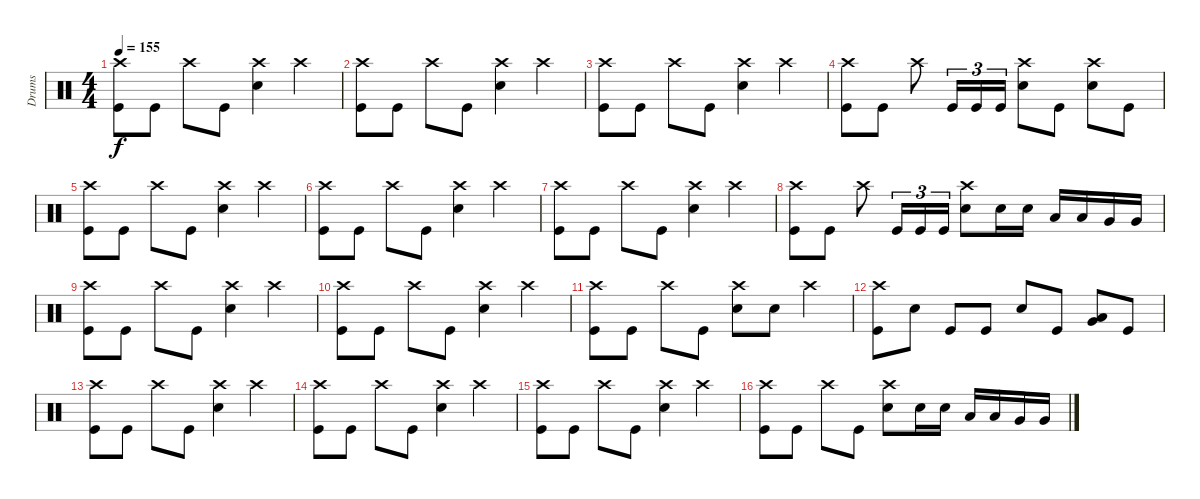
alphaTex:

\track ("Drums" "Drums") {instrument percussion}
\staff {score}
\articulation defaults
\ts (4 4)
\tempo 155
\clef neutral
\ks c
("Crash high (hit)" "Kick (hit)").8{dy f} "Kick (hit)".8 "Crash high (hit)".8 "Kick (hit)".8 ("Crash high (hit)" "Snare (hit) 2").4 "Crash high (hit)".4 |
("Crash high (hit)" "Kick (hit)").8 "Kick (hit)".8 "Crash high (hit)".8 "Kick (hit)".8 ("Crash high (hit)" "Snare (hit) 2").4 "Crash high (hit)".4 |
("Crash high (hit)" "Kick (hit)").8 "Kick (hit)".8 "Crash high (hit)".8 "Kick (hit)".8 ("Crash high (hit)" "Snare (hit) 2").4 "Crash high (hit)".4 |
("Crash high (hit)" "Kick (hit)").8 "Kick (hit)".8 "Crash high (hit)".8 "Kick (hit)".16{tu (3 2)} "Kick (hit)".16{tu (3 2)} "Kick (hit)".16{tu (3 2)} ("Crash high (hit)" "Snare (hit) 2").8 "Kick (hit)".8 ("Crash high (hit)" "Snare (hit) 2").8 "Kick (hit)".8 |
("Crash high (hit)" "Kick (hit)").8 "Kick (hit)".8 "Crash high (hit)".8 "Kick (hit)".8 ("Crash high (hit)" "Snare (hit) 2").4 "Crash high (hit)".4 |
("Crash high (hit)" "Kick (hit)").8 "Kick (hit)".8 "Crash high (hit)".8 "Kick (hit)".8 ("Crash high (hit)" "Snare (hit) 2").4 "Crash high (hit)".4 |
("Crash high (hit)" "Kick (hit)").8 "Kick (hit)".8 "Crash high (hit)".8 "Kick (hit)".8 ("Crash high (hit)" "Snare (hit) 2").4 "Crash high (hit)".4 |
("Crash high (hit)" "Kick (hit)").8 "Kick (hit)".8 "Crash high (hit)".8 "Kick (hit)".16{tu (3 2)} "Kick (hit)".16{tu (3 2)} "Kick (hit)".16{tu (3 2)} ("Crash high (hit)" "Snare (hit) 2").8 "Snare (hit) 2".16 "Snare (hit) 2".16 "Low Tom (hit)".16 "Low Tom (hit)".16 "Very Low Tom (hit)".16 "Very Low Tom (hit)".16 |
("Crash high (hit)" "Kick (hit)").8 "Kick (hit)".8 "Crash high (hit)".8 "Kick (hit)".8 ("Crash high (hit)" "Snare (hit) 2").4 "Crash high (hit)".4 |
("Crash high (hit)" "Kick (hit)").8 "Kick (hit)".8 "Crash high (hit)".8 "Kick (hit)".8 ("Crash high (hit)" "Snare (hit) 2").4 "Crash high (hit)".4 |
("Crash high (hit)" "Kick (hit)").8 "Kick (hit)".8 "Crash high (hit)".8 "Kick (hit)".8 ("Crash high (hit)" "Snare (hit) 2").8 "Snare (hit) 2".8 "Crash high (hit)".4 |
("Crash high (hit)" "Kick (hit)").8 "Snare (hit) 2".8 "Kick (hit)".8 "Kick (hit)".8 "Snare (hit) 2".8 "Kick (hit)".8 ("Very Low Tom (hit)" "Low Tom (hit)").8 "Kick (hit)".8 |
("Crash high (hit)" "Kick (hit)").8 "Kick (hit)".8 "Crash high (hit)".8 "Kick (hit)".8 ("Crash high (hit)" "Snare (hit) 2").4 "Crash high (hit)".4 |
("Crash high (hit)" "Kick (hit)").8 "Kick (hit)".8 "Crash high (hit)".8 "Kick (hit)".8 ("Crash high (hit)" "Snare (hit) 2").4 "Crash high (hit)".4 |
("Crash high (hit)" "Kick (hit)").8 "Kick (hit)".8 "Crash high (hit)".8 "Kick (hit)".8 ("Crash high (hit)" "Snare (hit) 2").4 "Crash high (hit)".4 |
("Crash high (hit)" "Kick (hit)").8 "Kick (hit)".8 "Crash high (hit)".8 "Kick (hit)".8 ("Crash high (hit)" "Snare (hit) 2").8 "Snare (hit) 2".16 "Snare (hit) 2".16 "Low Tom (hit)".16 "Low Tom (hit)".16 "Very Low Tom (hit)".16 "Very Low Tom (hit)".16
